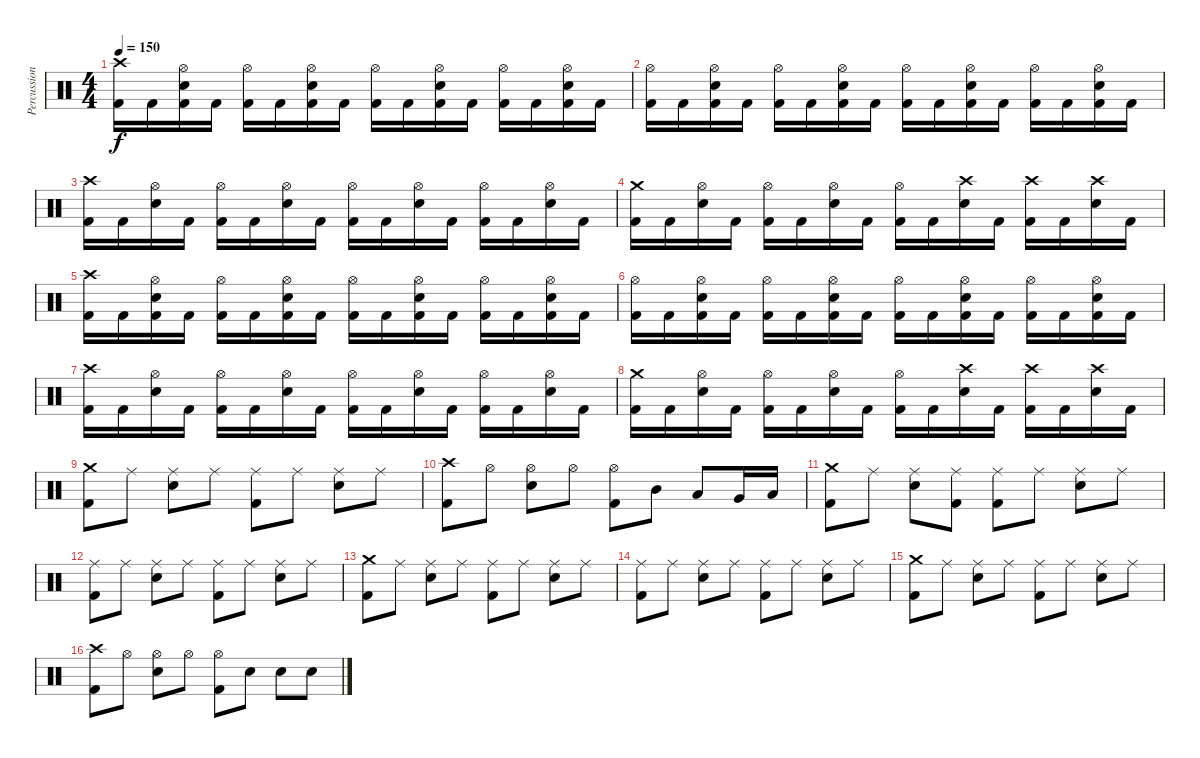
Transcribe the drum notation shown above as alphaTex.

\track ("Percussion" "Percussion") {instrument percussion}
\staff {score}
\articulation defaults
\ts (4 4)
\tempo 150
\clef neutral
\ks c
("Crash high (hit)" "Kick (hit) 2").16{dy f} "Kick (hit) 2".16 ("Hi-Hat (open)" "Snare (hit) 2" "Kick (hit) 2").16 "Kick (hit) 2".16 ("Hi-Hat (open)" "Kick (hit) 2").16 "Kick (hit) 2".16 ("Hi-Hat (open)" "Snare (hit) 2" "Kick (hit) 2").16 "Kick (hit) 2".16 ("Hi-Hat (open)" "Kick (hit) 2").16 "Kick (hit) 2".16 ("Hi-Hat (open)" "Snare (hit) 2" "Kick (hit) 2").16 "Kick (hit) 2".16 ("Hi-Hat (open)" "Kick (hit) 2").16 "Kick (hit) 2".16 ("Hi-Hat (open)" "Snare (hit) 2" "Kick (hit) 2").16 "Kick (hit) 2".16 |
("Hi-Hat (open)" "Kick (hit) 2").16 "Kick (hit) 2".16 ("Hi-Hat (open)" "Snare (hit) 2" "Kick (hit) 2").16 "Kick (hit) 2".16 ("Hi-Hat (open)" "Kick (hit) 2").16 "Kick (hit) 2".16 ("Hi-Hat (open)" "Snare (hit) 2" "Kick (hit) 2").16 "Kick (hit) 2".16 ("Hi-Hat (open)" "Kick (hit) 2").16 "Kick (hit) 2".16 ("Hi-Hat (open)" "Snare (hit) 2" "Kick (hit) 2").16 "Kick (hit) 2".16 ("Hi-Hat (open)" "Kick (hit) 2").16 "Kick (hit) 2".16 ("Hi-Hat (open)" "Snare (hit) 2" "Kick (hit) 2").16 "Kick (hit) 2".16 |
("Crash high (hit)" "Kick (hit) 2").16 "Kick (hit) 2".16 ("Hi-Hat (open)" "Snare (hit) 2").16 "Kick (hit) 2".16 ("Hi-Hat (open)" "Kick (hit) 2").16 "Kick (hit) 2".16 ("Hi-Hat (open)" "Snare (hit) 2").16 "Kick (hit) 2".16 ("Hi-Hat (open)" "Kick (hit) 2").16 "Kick (hit) 2".16 ("Hi-Hat (open)" "Snare (hit) 2").16 "Kick (hit) 2".16 ("Hi-Hat (open)" "Kick (hit) 2").16 "Kick (hit) 2".16 ("Hi-Hat (open)" "Snare (hit) 2").16 "Kick (hit) 2".16 |
("Crash medium (hit)" "Kick (hit) 2").16 "Kick (hit) 2".16 ("Hi-Hat (open)" "Snare (hit) 2").16 "Kick (hit) 2".16 ("Hi-Hat (open)" "Kick (hit) 2").16 "Kick (hit) 2".16 ("Hi-Hat (open)" "Snare (hit) 2").16 "Kick (hit) 2".16 ("Hi-Hat (open)" "Kick (hit) 2").16 "Kick (hit) 2".16 ("Crash high (hit)" "Snare (hit) 2").16 "Kick (hit) 2".16 ("Crash high (hit)" "Kick (hit) 2").16 "Kick (hit) 2".16 ("Crash high (hit)" "Snare (hit) 2").16 "Kick (hit) 2".16 |
("Crash high (hit)" "Kick (hit) 2").16 "Kick (hit) 2".16 ("Hi-Hat (open)" "Snare (hit) 2" "Kick (hit) 2").16 "Kick (hit) 2".16 ("Hi-Hat (open)" "Kick (hit) 2").16 "Kick (hit) 2".16 ("Hi-Hat (open)" "Snare (hit) 2" "Kick (hit) 2").16 "Kick (hit) 2".16 ("Hi-Hat (open)" "Kick (hit) 2").16 "Kick (hit) 2".16 ("Hi-Hat (open)" "Snare (hit) 2" "Kick (hit) 2").16 "Kick (hit) 2".16 ("Hi-Hat (open)" "Kick (hit) 2").16 "Kick (hit) 2".16 ("Hi-Hat (open)" "Snare (hit) 2" "Kick (hit) 2").16 "Kick (hit) 2".16 |
("Hi-Hat (open)" "Kick (hit) 2").16 "Kick (hit) 2".16 ("Hi-Hat (open)" "Snare (hit) 2" "Kick (hit) 2").16 "Kick (hit) 2".16 ("Hi-Hat (open)" "Kick (hit) 2").16 "Kick (hit) 2".16 ("Hi-Hat (open)" "Snare (hit) 2" "Kick (hit) 2").16 "Kick (hit) 2".16 ("Hi-Hat (open)" "Kick (hit) 2").16 "Kick (hit) 2".16 ("Hi-Hat (open)" "Snare (hit) 2" "Kick (hit) 2").16 "Kick (hit) 2".16 ("Hi-Hat (open)" "Kick (hit) 2").16 "Kick (hit) 2".16 ("Hi-Hat (open)" "Snare (hit) 2" "Kick (hit) 2").16 "Kick (hit) 2".16 |
("Crash high (hit)" "Kick (hit) 2").16 "Kick (hit) 2".16 ("Hi-Hat (open)" "Snare (hit) 2").16 "Kick (hit) 2".16 ("Hi-Hat (open)" "Kick (hit) 2").16 "Kick (hit) 2".16 ("Hi-Hat (open)" "Snare (hit) 2").16 "Kick (hit) 2".16 ("Hi-Hat (open)" "Kick (hit) 2").16 "Kick (hit) 2".16 ("Hi-Hat (open)" "Snare (hit) 2").16 "Kick (hit) 2".16 ("Hi-Hat (open)" "Kick (hit) 2").16 "Kick (hit) 2".16 ("Hi-Hat (open)" "Snare (hit) 2").16 "Kick (hit) 2".16 |
("Crash medium (hit)" "Kick (hit) 2").16 "Kick (hit) 2".16 ("Hi-Hat (open)" "Snare (hit) 2").16 "Kick (hit) 2".16 ("Hi-Hat (open)" "Kick (hit) 2").16 "Kick (hit) 2".16 ("Hi-Hat (open)" "Snare (hit) 2").16 "Kick (hit) 2".16 ("Hi-Hat (open)" "Kick (hit) 2").16 "Kick (hit) 2".16 ("Crash high (hit)" "Snare (hit) 2").16 "Kick (hit) 2".16 ("Crash high (hit)" "Kick (hit) 2").16 "Kick (hit) 2".16 ("Crash high (hit)" "Snare (hit) 2").16 "Kick (hit) 2".16 |
("Crash medium (hit)" "Kick (hit) 2").8 "Ride (middle)".8 ("Ride (middle)" "Snare (hit) 2").8 "Ride (middle)".8 ("Ride (middle)" "Kick (hit) 2").8 "Ride (middle)".8 ("Ride (middle)" "Snare (hit) 2").8 "Ride (middle)".8 |
("Crash high (hit)" "Kick (hit) 2").8 "Hi-Hat (open)".8 ("Hi-Hat (open)" "Snare (hit) 2").8 "Hi-Hat (open)".8 ("Hi-Hat (open)" "Kick (hit) 2").8 "Mid Tom (hit)".8 "Low Tom (hit)".8 "Very Low Tom (hit)".16 "Low Floor Tom (hit)".16 |
("Crash medium (hit)" "Kick (hit) 2").8 "Ride (middle)".8 ("Ride (middle)" "Snare (hit) 2").8 ("Ride (middle)" "Kick (hit) 2").8 ("Ride (middle)" "Kick (hit) 2").8 "Ride (middle)".8 ("Ride (middle)" "Snare (hit) 2").8 "Ride (middle)".8 |
("Ride (middle)" "Kick (hit) 2").8 "Ride (middle)".8 ("Ride (middle)" "Snare (hit) 2").8 "Ride (middle)".8 ("Ride (middle)" "Kick (hit) 2").8 "Ride (middle)".8 ("Ride (middle)" "Snare (hit) 2").8 "Ride (middle)".8 |
("Crash medium (hit)" "Kick (hit) 2").8 "Ride (middle)".8 ("Ride (middle)" "Snare (hit) 2").8 "Ride (middle)".8 ("Ride (middle)" "Kick (hit) 2").8 "Ride (middle)".8 ("Ride (middle)" "Snare (hit) 2").8 "Ride (middle)".8 |
("Ride (middle)" "Kick (hit) 2").8 "Ride (middle)".8 ("Ride (middle)" "Snare (hit) 2").8 "Ride (middle)".8 ("Ride (middle)" "Kick (hit) 2").8 "Ride (middle)".8 ("Ride (middle)" "Snare (hit) 2").8 "Ride (middle)".8 |
("Crash medium (hit)" "Kick (hit) 2").8 "Ride (middle)".8 ("Ride (middle)" "Snare (hit) 2").8 "Ride (middle)".8 ("Ride (middle)" "Kick (hit) 2").8 "Ride (middle)".8 ("Ride (middle)" "Snare (hit) 2").8 "Ride (middle)".8 |
("Crash high (hit)" "Kick (hit) 2").8 "Hi-Hat (open)".8 ("Hi-Hat (open)" "Snare (hit) 2").8 "Hi-Hat (open)".8 ("Hi-Hat (open)" "Kick (hit) 2").8 "Snare (hit) 2".8 "Snare (hit) 2".8 "Snare (hit) 2".8
